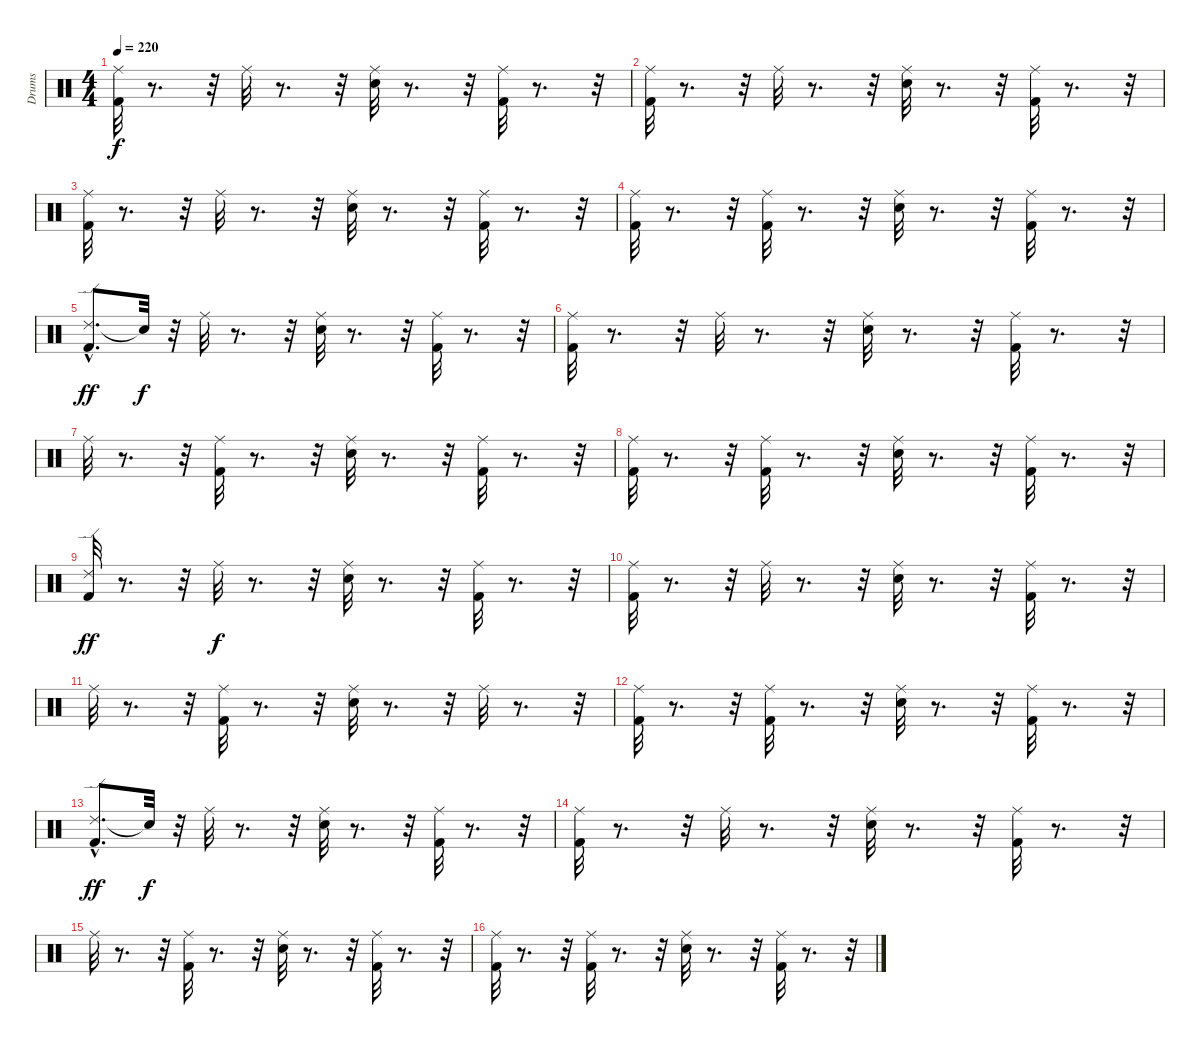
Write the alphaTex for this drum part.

\track ("Drums" "Drums") {instrument percussion}
\staff {score}
\articulation defaults
\ts (4 4)
\tempo 220
\clef neutral
\ks c
("Ride (middle)" "Kick (hit) 2").32{dy f} r.8{d} r.32 "Ride (middle)".32 r.8{d} r.32 ("Ride (middle)" "Snare (hit) 2").32 r.8{d} r.32 ("Ride (middle)" "Kick (hit) 2").32 r.8{d} r.32 |
("Ride (middle)" "Kick (hit) 2").32 r.8{d} r.32 "Ride (middle)".32 r.8{d} r.32 ("Ride (middle)" "Snare (hit) 2").32 r.8{d} r.32 ("Ride (middle)" "Kick (hit) 2").32 r.8{d} r.32 |
("Ride (middle)" "Kick (hit) 2").32 r.8{d} r.32 "Ride (middle)".32 r.8{d} r.32 ("Ride (middle)" "Snare (hit) 2").32 r.8{d} r.32 ("Ride (middle)" "Kick (hit) 2").32 r.8{d} r.32 |
("Ride (middle)" "Kick (hit) 2").32 r.8{d} r.32 ("Kick (hit) 2" "Ride (middle)").32 r.8{d} r.32 ("Ride (middle)" "Snare (hit) 2").32 r.8{d} r.32 ("Ride (middle)" "Kick (hit) 2").32 r.8{d} r.32 |
("Ride (edge) 2"{hac} "Kick (hit) 2").8{d dy ff} "Snare (hit)"{t}.32{dy f} r.32 "Ride (middle)".32 r.8{d} r.32 ("Snare (hit) 2" "Ride (middle)").32 r.8{d} r.32 ("Kick (hit) 2" "Ride (middle)").32 r.8{d} r.32 |
("Kick (hit) 2" "Ride (middle)").32 r.8{d} r.32 "Ride (middle)".32 r.8{d} r.32 ("Snare (hit) 2" "Ride (middle)").32 r.8{d} r.32 ("Kick (hit) 2" "Ride (middle)").32 r.8{d} r.32 |
"Ride (middle)".32 r.8{d} r.32 ("Kick (hit) 2" "Ride (middle)").32 r.8{d} r.32 ("Ride (middle)" "Snare (hit) 2").32 r.8{d} r.32 ("Kick (hit) 2" "Ride (middle)").32 r.8{d} r.32 |
("Kick (hit) 2" "Ride (middle)").32 r.8{d} r.32 ("Ride (middle)" "Kick (hit) 2").32 r.8{d} r.32 ("Ride (middle)" "Snare (hit) 2").32 r.8{d} r.32 ("Ride (middle)" "Kick (hit) 2").32 r.8{d} r.32 |
("Ride (edge) 2" "Kick (hit) 2").32{dy ff} r.8{d} r.32 "Ride (middle)".32{dy f} r.8{d} r.32 ("Ride (middle)" "Snare (hit) 2").32 r.8{d} r.32 ("Ride (middle)" "Kick (hit) 2").32 r.8{d} r.32 |
("Ride (middle)" "Kick (hit) 2").32 r.8{d} r.32 "Ride (middle)".32 r.8{d} r.32 ("Ride (middle)" "Snare (hit) 2").32 r.8{d} r.32 ("Kick (hit) 2" "Ride (middle)").32 r.8{d} r.32 |
"Ride (middle)".32 r.8{d} r.32 ("Kick (hit) 2" "Ride (middle)").32 r.8{d} r.32 ("Ride (middle)" "Snare (hit) 2").32 r.8{d} r.32 "Ride (middle)".32 r.8{d} r.32 |
("Ride (middle)" "Kick (hit) 2").32 r.8{d} r.32 ("Ride (middle)" "Kick (hit) 2").32 r.8{d} r.32 ("Ride (middle)" "Snare (hit) 2").32 r.8{d} r.32 ("Ride (middle)" "Kick (hit) 2").32 r.8{d} r.32 |
("Ride (edge) 2"{hac} "Kick (hit) 2").8{d dy ff} "Snare (hit)"{t}.32{dy f} r.32 "Ride (middle)".32 r.8{d} r.32 ("Snare (hit) 2" "Ride (middle)").32 r.8{d} r.32 ("Kick (hit) 2" "Ride (middle)").32 r.8{d} r.32 |
("Kick (hit) 2" "Ride (middle)").32 r.8{d} r.32 "Ride (middle)".32 r.8{d} r.32 ("Snare (hit) 2" "Ride (middle)").32 r.8{d} r.32 ("Kick (hit) 2" "Ride (middle)").32 r.8{d} r.32 |
"Ride (middle)".32 r.8{d} r.32 ("Kick (hit) 2" "Ride (middle)").32 r.8{d} r.32 ("Ride (middle)" "Snare (hit) 2").32 r.8{d} r.32 ("Kick (hit) 2" "Ride (middle)").32 r.8{d} r.32 |
("Kick (hit) 2" "Ride (middle)").32 r.8{d} r.32 ("Ride (middle)" "Kick (hit) 2").32 r.8{d} r.32 ("Ride (middle)" "Snare (hit) 2").32 r.8{d} r.32 ("Ride (middle)" "Kick (hit) 2").32 r.8{d} r.32
